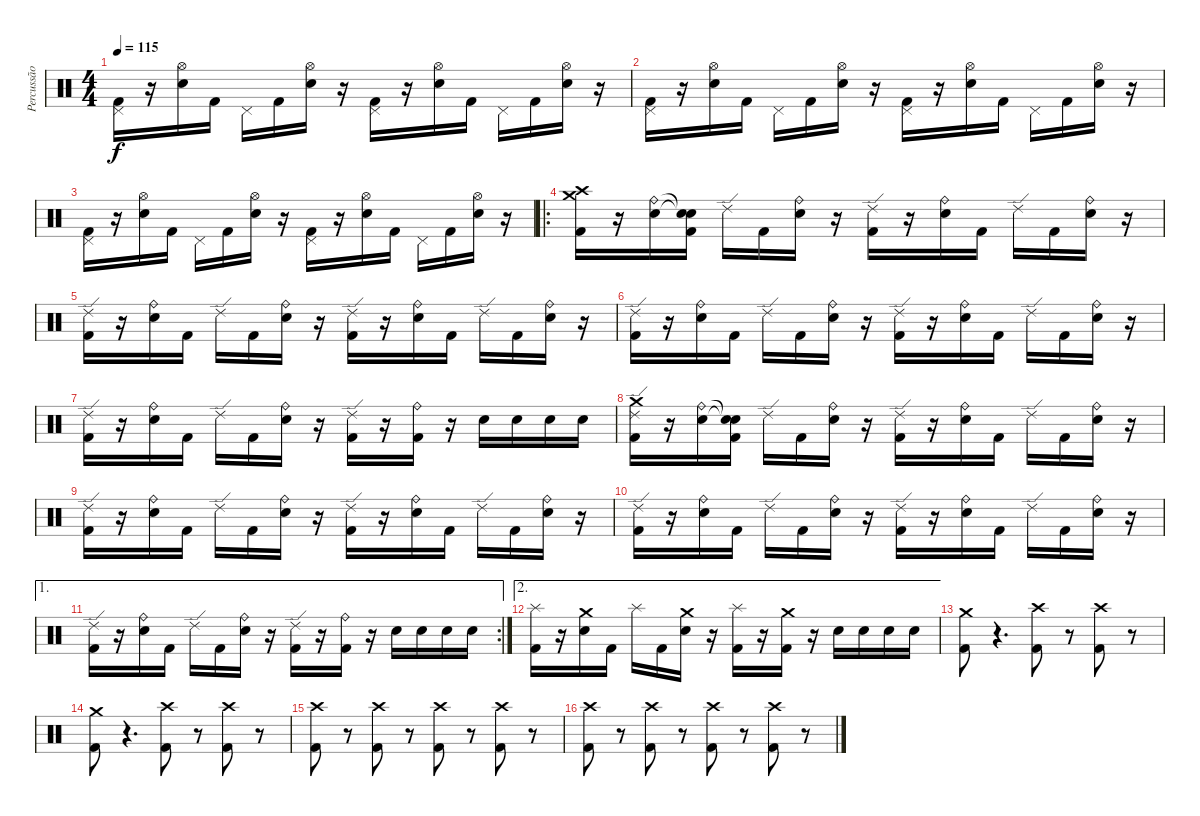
\track ("Percussão" "Percussão") {instrument percussion}
\staff {score}
\articulation defaults
\ts (4 4)
\tempo 115
\clef neutral
\ks c
("Pedal Hi-Hat (hit)" "Kick (hit) 2").16{dy f} r.16 ("Hi-Hat (open)" "Electric Snare (hit)").16 "Kick (hit) 2".16 "Pedal Hi-Hat (hit)".16 "Kick (hit) 2".16 ("Hi-Hat (open)" "Electric Snare (hit)").16 r.16 ("Pedal Hi-Hat (hit)" "Kick (hit) 2").16 r.16 ("Hi-Hat (open)" "Electric Snare (hit)").16 "Kick (hit) 2".16 "Pedal Hi-Hat (hit)".16 "Kick (hit) 2".16 ("Hi-Hat (open)" "Electric Snare (hit)").16 r.16 |
("Pedal Hi-Hat (hit)" "Kick (hit) 2").16 r.16 ("Hi-Hat (open)" "Electric Snare (hit)").16 "Kick (hit) 2".16 "Pedal Hi-Hat (hit)".16 "Kick (hit) 2".16 ("Hi-Hat (open)" "Electric Snare (hit)").16 r.16 ("Pedal Hi-Hat (hit)" "Kick (hit) 2").16 r.16 ("Hi-Hat (open)" "Electric Snare (hit)").16 "Kick (hit) 2".16 "Pedal Hi-Hat (hit)".16 "Kick (hit) 2".16 ("Hi-Hat (open)" "Electric Snare (hit)").16 r.16 |
("Pedal Hi-Hat (hit)" "Kick (hit) 2").16 r.16 ("Hi-Hat (open)" "Electric Snare (hit)").16 "Kick (hit) 2".16 "Pedal Hi-Hat (hit)".16 "Kick (hit) 2".16 ("Hi-Hat (open)" "Electric Snare (hit)").16 r.16 ("Pedal Hi-Hat (hit)" "Kick (hit) 2").16 r.16 ("Hi-Hat (open)" "Electric Snare (hit)").16 "Kick (hit) 2".16 "Pedal Hi-Hat (hit)".16 "Kick (hit) 2".16 ("Hi-Hat (open)" "Electric Snare (hit)").16 r.16 |
\ro
("Crash high (hit)" "Crash medium (hit)" "Kick (hit) 2").16 r.16 ("Ride (bell)" "Electric Snare (hit)").16 ("Snare (hit)"{t} "Snare (hit)"{t} "Kick (hit) 2").16 "Ride (edge) 2".16 "Kick (hit) 2".16 ("Ride (bell)" "Electric Snare (hit)").16 r.16 ("Ride (edge) 2" "Kick (hit) 2").16 r.16 ("Ride (bell)" "Electric Snare (hit)").16 "Kick (hit) 2".16 "Ride (edge) 2".16 "Kick (hit) 2".16 ("Ride (bell)" "Electric Snare (hit)").16 r.16 |
("Ride (edge) 2" "Kick (hit) 2").16 r.16 ("Ride (bell)" "Electric Snare (hit)").16 "Kick (hit) 2".16 "Ride (edge) 2".16 "Kick (hit) 2".16 ("Ride (bell)" "Electric Snare (hit)").16 r.16 ("Ride (edge) 2" "Kick (hit) 2").16 r.16 ("Ride (bell)" "Electric Snare (hit)").16 "Kick (hit) 2".16 "Ride (edge) 2".16 "Kick (hit) 2".16 ("Ride (bell)" "Electric Snare (hit)").16 r.16 |
("Ride (edge) 2" "Kick (hit) 2").16 r.16 ("Ride (bell)" "Electric Snare (hit)").16 "Kick (hit) 2".16 "Ride (edge) 2".16 "Kick (hit) 2".16 ("Ride (bell)" "Electric Snare (hit)").16 r.16 ("Ride (edge) 2" "Kick (hit) 2").16 r.16 ("Ride (bell)" "Electric Snare (hit)").16 "Kick (hit) 2".16 "Ride (edge) 2".16 "Kick (hit) 2".16 ("Ride (bell)" "Electric Snare (hit)").16 r.16 |
("Ride (edge) 2" "Kick (hit) 2").16 r.16 ("Ride (bell)" "Electric Snare (hit)").16 "Kick (hit) 2".16 "Ride (edge) 2".16 "Kick (hit) 2".16 ("Ride (bell)" "Electric Snare (hit)").16 r.16 ("Ride (edge) 2" "Kick (hit) 2").16 r.16 ("Ride (bell)" "Kick (hit) 2").16 r.16 "Electric Snare (hit)".16 "Electric Snare (hit)".16 "Electric Snare (hit)".16 "Electric Snare (hit)".16 |
("Crash medium (hit)" "Ride (edge) 2" "Kick (hit) 2").16 r.16 ("Ride (bell)" "Electric Snare (hit)").16 ("Snare (hit)"{t} "Snare (hit)"{t} "Kick (hit) 2").16 "Ride (edge) 2".16 "Kick (hit) 2".16 ("Ride (bell)" "Electric Snare (hit)").16 r.16 ("Ride (edge) 2" "Kick (hit) 2").16 r.16 ("Ride (bell)" "Electric Snare (hit)").16 "Kick (hit) 2".16 "Ride (edge) 2".16 "Kick (hit) 2".16 ("Ride (bell)" "Electric Snare (hit)").16 r.16 |
("Ride (edge) 2" "Kick (hit) 2").16 r.16 ("Ride (bell)" "Electric Snare (hit)").16 "Kick (hit) 2".16 "Ride (edge) 2".16 "Kick (hit) 2".16 ("Ride (bell)" "Electric Snare (hit)").16 r.16 ("Ride (edge) 2" "Kick (hit) 2").16 r.16 ("Ride (bell)" "Electric Snare (hit)").16 "Kick (hit) 2".16 "Ride (edge) 2".16 "Kick (hit) 2".16 ("Ride (bell)" "Electric Snare (hit)").16 r.16 |
("Ride (edge) 2" "Kick (hit) 2").16 r.16 ("Ride (bell)" "Electric Snare (hit)").16 "Kick (hit) 2".16 "Ride (edge) 2".16 "Kick (hit) 2".16 ("Ride (bell)" "Electric Snare (hit)").16 r.16 ("Ride (edge) 2" "Kick (hit) 2").16 r.16 ("Ride (bell)" "Electric Snare (hit)").16 "Kick (hit) 2".16 "Ride (edge) 2".16 "Kick (hit) 2".16 ("Ride (bell)" "Electric Snare (hit)").16 r.16 |
\ae 1
\rc 2
("Ride (edge) 2" "Kick (hit) 2").16 r.16 ("Ride (bell)" "Electric Snare (hit)").16 "Kick (hit) 2".16 "Ride (edge) 2".16 "Kick (hit) 2".16 ("Ride (bell)" "Electric Snare (hit)").16 r.16 ("Ride (edge) 2" "Kick (hit) 2").16 r.16 ("Ride (bell)" "Kick (hit) 2").16 r.16 "Electric Snare (hit)".16 "Electric Snare (hit)".16 "Electric Snare (hit)".16 "Electric Snare (hit)".16 |
\ae 2
("Splash (hit)" "Kick (hit) 2").16 r.16 ("Crash medium (hit)" "Electric Snare (hit)").16 "Kick (hit) 2".16 "Splash (hit)".16 "Kick (hit) 2".16 ("Crash medium (hit)" "Electric Snare (hit)").16 r.16 ("Splash (hit)" "Kick (hit) 2").16 r.16 ("Crash medium (hit)" "Kick (hit) 2").16 r.16 "Electric Snare (hit)".16 "Electric Snare (hit)".16 "Electric Snare (hit)".16 "Electric Snare (hit)".16 |
("Crash medium (hit)" "Kick (hit) 2").8{volume 13} r.4{d volume 0} ("Crash high (hit)" "Kick (hit) 2").8{volume 13 balance 0} r.8{volume 0} ("Crash high (hit)" "Kick (hit) 2").8{volume 13 balance 16} r.8{volume 0} |
("Crash medium (hit)" "Kick (hit) 2").8{volume 13} r.4{d volume 0} ("Crash high (hit)" "Kick (hit) 2").8{volume 13 balance 0} r.8{volume 0} ("Crash high (hit)" "Kick (hit) 2").8{volume 13 balance 16} r.8{volume 0} |
("Crash high (hit)" "Kick (hit) 2").8{volume 13 balance 0} r.8{volume 0} ("Crash high (hit)" "Kick (hit) 2").8{volume 13 balance 16} r.8{volume 0} ("Crash high (hit)" "Kick (hit) 2").8{volume 13 balance 0} r.8{volume 0} ("Crash high (hit)" "Kick (hit) 2").8{volume 13 balance 16} r.8{volume 0} |
("Crash high (hit)" "Kick (hit) 2").8{volume 13 balance 0} r.8{volume 0} ("Crash high (hit)" "Kick (hit) 2").8{volume 13 balance 16} r.8{volume 0} ("Crash high (hit)" "Kick (hit) 2").8{volume 13 balance 0} r.8{volume 0} ("Crash high (hit)" "Kick (hit) 2").8{volume 13 balance 16} r.8{volume 0}
